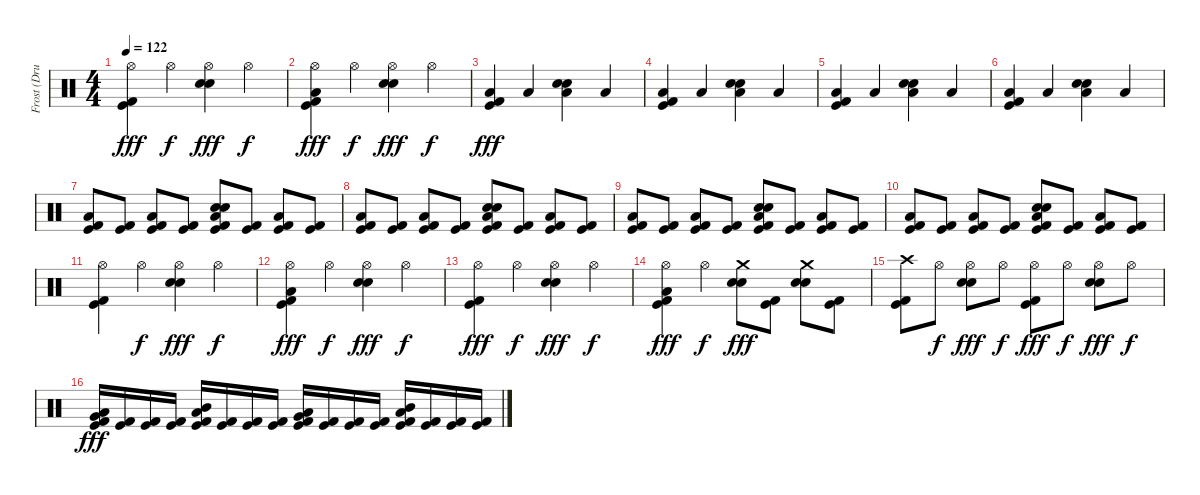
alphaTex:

\track ("Frost (Drums)" "Frost (Dru") {instrument percussion}
\staff {score}
\articulation defaults
\ts (4 4)
\tempo 122
\clef neutral
\ks c
("Hi-Hat (open)" "Kick (hit)" "Kick (hit) 2").4{dy fff} "Hi-Hat (open)".4{dy f} ("Hi-Hat (open)" "Snare (hit) 2" "Electric Snare (hit)").4{dy fff} "Hi-Hat (open)".4{dy f} |
("Hi-Hat (open)" "Low Floor Tom (hit)" "Kick (hit)" "Kick (hit) 2").4{dy fff} "Hi-Hat (open)".4{dy f} ("Hi-Hat (open)" "Snare (hit) 2" "Electric Snare (hit)").4{dy fff} "Hi-Hat (open)".4{dy f} |
("Low Floor Tom (hit)" "Kick (hit)" "Kick (hit) 2").4{dy fff} "Low Floor Tom (hit)".4 ("Low Floor Tom (hit)" "Snare (hit) 2" "Electric Snare (hit)").4 "Low Floor Tom (hit)".4 |
("Low Floor Tom (hit)" "Kick (hit)" "Kick (hit) 2").4 "Low Floor Tom (hit)".4 ("Low Floor Tom (hit)" "Snare (hit) 2" "Electric Snare (hit)").4 "Low Floor Tom (hit)".4 |
("Low Floor Tom (hit)" "Kick (hit)" "Kick (hit) 2").4 "Low Floor Tom (hit)".4 ("Low Floor Tom (hit)" "Snare (hit) 2" "Electric Snare (hit)").4 "Low Floor Tom (hit)".4 |
("Low Floor Tom (hit)" "Kick (hit)" "Kick (hit) 2").4 "Low Floor Tom (hit)".4 ("Low Floor Tom (hit)" "Snare (hit) 2" "Electric Snare (hit)").4 "Low Floor Tom (hit)".4 |
("Low Floor Tom (hit)" "Kick (hit)" "Kick (hit) 2").8 ("Kick (hit)" "Kick (hit) 2").8 ("Low Floor Tom (hit)" "Kick (hit)" "Kick (hit) 2").8 ("Kick (hit)" "Kick (hit) 2").8 ("Low Floor Tom (hit)" "Snare (hit) 2" "Electric Snare (hit)" "Kick (hit)" "Kick (hit) 2").8 ("Kick (hit)" "Kick (hit) 2").8 ("Low Floor Tom (hit)" "Kick (hit)" "Kick (hit) 2").8 ("Kick (hit)" "Kick (hit) 2").8 |
("Low Floor Tom (hit)" "Kick (hit)" "Kick (hit) 2").8 ("Kick (hit)" "Kick (hit) 2").8 ("Low Floor Tom (hit)" "Kick (hit)" "Kick (hit) 2").8 ("Kick (hit)" "Kick (hit) 2").8 ("Low Floor Tom (hit)" "Snare (hit) 2" "Electric Snare (hit)" "Kick (hit)" "Kick (hit) 2").8 ("Kick (hit)" "Kick (hit) 2").8 ("Low Floor Tom (hit)" "Kick (hit)" "Kick (hit) 2").8 ("Kick (hit)" "Kick (hit) 2").8 |
("Low Floor Tom (hit)" "Kick (hit)" "Kick (hit) 2").8 ("Kick (hit)" "Kick (hit) 2").8 ("Low Floor Tom (hit)" "Kick (hit)" "Kick (hit) 2").8 ("Kick (hit)" "Kick (hit) 2").8 ("Low Floor Tom (hit)" "Snare (hit) 2" "Electric Snare (hit)" "Kick (hit)" "Kick (hit) 2").8 ("Kick (hit)" "Kick (hit) 2").8 ("Low Floor Tom (hit)" "Kick (hit)" "Kick (hit) 2").8 ("Kick (hit)" "Kick (hit) 2").8 |
("Low Floor Tom (hit)" "Kick (hit)" "Kick (hit) 2").8 ("Kick (hit)" "Kick (hit) 2").8 ("Low Floor Tom (hit)" "Kick (hit)" "Kick (hit) 2").8 ("Kick (hit)" "Kick (hit) 2").8 ("Low Floor Tom (hit)" "Snare (hit) 2" "Electric Snare (hit)" "Kick (hit)" "Kick (hit) 2").8 ("Kick (hit)" "Kick (hit) 2").8 ("Low Floor Tom (hit)" "Kick (hit)" "Kick (hit) 2").8 ("Kick (hit)" "Kick (hit) 2").8 |
("Hi-Hat (open)" "Kick (hit)" "Kick (hit) 2").4 "Hi-Hat (open)".4{dy f} ("Hi-Hat (open)" "Snare (hit) 2" "Electric Snare (hit)").4{dy fff} "Hi-Hat (open)".4{dy f} |
("Hi-Hat (open)" "Low Floor Tom (hit)" "Kick (hit)" "Kick (hit) 2").4{dy fff} "Hi-Hat (open)".4{dy f} ("Hi-Hat (open)" "Snare (hit) 2" "Electric Snare (hit)").4{dy fff} "Hi-Hat (open)".4{dy f} |
("Hi-Hat (open)" "Kick (hit)" "Kick (hit) 2").4{dy fff} "Hi-Hat (open)".4{dy f} ("Hi-Hat (open)" "Snare (hit) 2" "Electric Snare (hit)").4{dy fff} "Hi-Hat (open)".4{dy f} |
("Hi-Hat (open)" "Low Floor Tom (hit)" "Kick (hit)" "Kick (hit) 2").4{dy fff} "Hi-Hat (open)".4{dy f} ("Crash medium (hit)" "Snare (hit) 2" "Electric Snare (hit)").8{dy fff} ("Kick (hit)" "Kick (hit) 2").8 ("Crash medium (hit)" "Snare (hit) 2" "Electric Snare (hit)").8 ("Kick (hit)" "Kick (hit) 2").8 |
("Crash high (hit)" "Kick (hit)" "Kick (hit) 2").8 "Hi-Hat (open)".8{dy f} ("Hi-Hat (open)" "Snare (hit) 2" "Electric Snare (hit)").8{dy fff} "Hi-Hat (open)".8{dy f} ("Hi-Hat (open)" "Kick (hit)" "Kick (hit) 2").8{dy fff} "Hi-Hat (open)".8{dy f} ("Hi-Hat (open)" "Snare (hit) 2" "Electric Snare (hit)").8{dy fff} "Hi-Hat (open)".8{dy f} |
("Low Tom (hit)" "Very Low Tom (hit)" "Kick (hit)" "Kick (hit) 2").16{dy fff} ("Kick (hit)" "Kick (hit) 2").16 ("Kick (hit)" "Kick (hit) 2").16 ("Kick (hit)" "Kick (hit) 2").16 ("Mid Tom (hit)" "Low Tom (hit)" "Kick (hit)" "Kick (hit) 2").16 ("Kick (hit)" "Kick (hit) 2").16 ("Kick (hit)" "Kick (hit) 2").16 ("Kick (hit)" "Kick (hit) 2").16 ("Low Tom (hit)" "Very Low Tom (hit)" "Kick (hit)" "Kick (hit) 2").16 ("Kick (hit)" "Kick (hit) 2").16 ("Kick (hit)" "Kick (hit) 2").16 ("Kick (hit)" "Kick (hit) 2").16 ("Mid Tom (hit)" "Low Tom (hit)" "Kick (hit)" "Kick (hit) 2").16 ("Kick (hit)" "Kick (hit) 2").16 ("Kick (hit)" "Kick (hit) 2").16 ("Kick (hit)" "Kick (hit) 2").16
